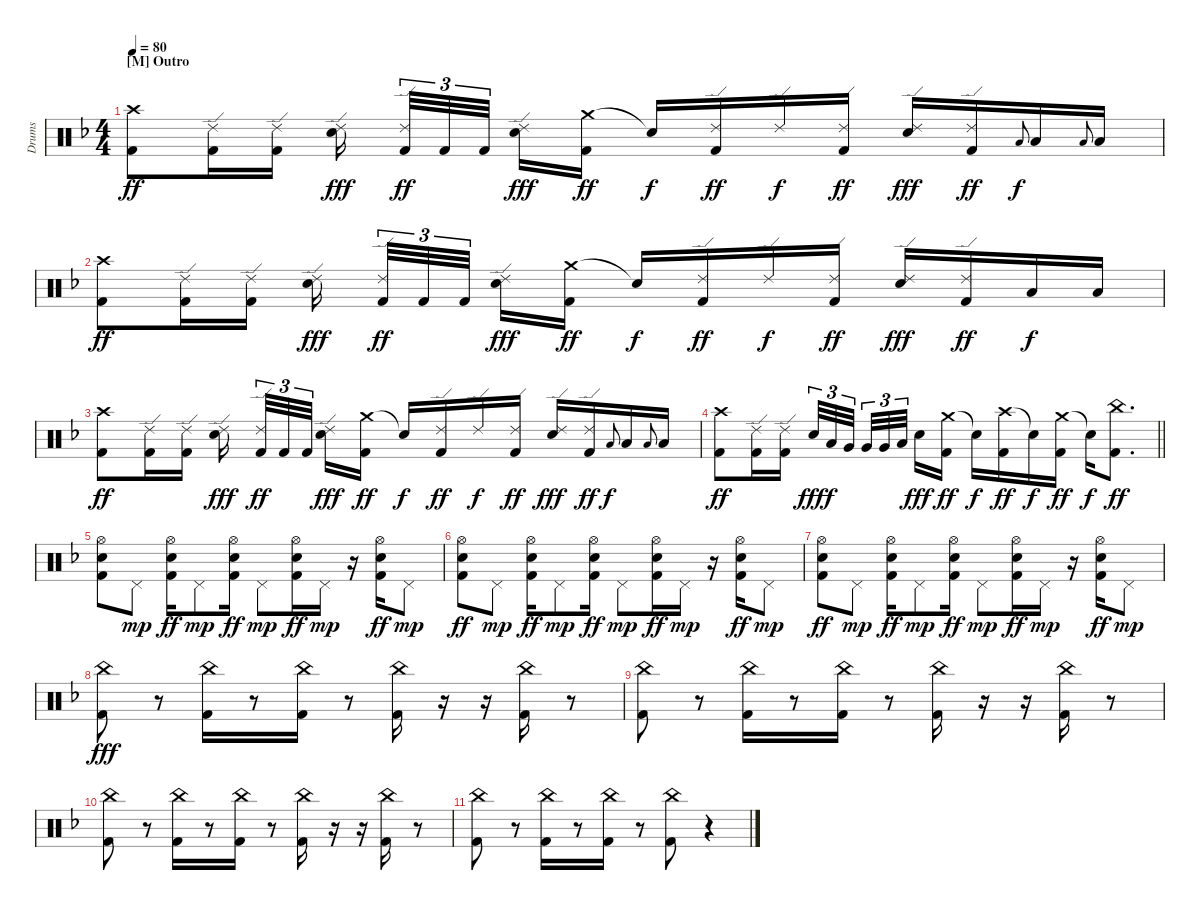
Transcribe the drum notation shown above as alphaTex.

\track ("Drums" "Drums") {instrument percussion}
\staff {score}
\articulation defaults
\ts (4 4)
\section ("" "[M] Outro")
\tempo 80
\clef neutral
\ks dminor
("Crash high (hit)" "Kick (hit) 2").8{dy ff} ("Ride (edge) 2" "Kick (hit) 2").16 ("Ride (edge) 2" "Kick (hit) 2").16 ("Ride (edge) 2" "Electric Snare (hit)").16{dy fff beam splitsecondary} ("Ride (edge) 2" "Kick (hit) 2").32{tu (3 2) dy ff} "Kick (hit) 2".32{tu (3 2)} "Kick (hit) 2".32{tu (3 2) beam splitsecondary} ("Ride (edge) 2" "Electric Snare (hit)").16{dy fff} ("Crash medium (hit)" "Kick (hit) 2").16{dy ff} "Snare (hit)"{t}.16{dy f} ("Ride (edge) 2" "Kick (hit) 2").16{dy ff} "Ride (edge) 2".16{dy f} ("Ride (edge) 2" "Kick (hit) 2").16{dy ff} ("Ride (edge) 2" "Electric Snare (hit)").16{dy fff} ("Ride (edge) 2" "Kick (hit) 2").16{dy ff} "Low Floor Tom (hit)".8{gr onbeat dy f} "Low Floor Tom (hit)".16 "Low Floor Tom (hit)".8{gr onbeat} "Low Floor Tom (hit)".16 |
("Crash high (hit)" "Kick (hit) 2").8{dy ff} ("Ride (edge) 2" "Kick (hit) 2").16 ("Ride (edge) 2" "Kick (hit) 2").16 ("Ride (edge) 2" "Electric Snare (hit)").16{dy fff beam splitsecondary} ("Ride (edge) 2" "Kick (hit) 2").32{tu (3 2) dy ff} "Kick (hit) 2".32{tu (3 2)} "Kick (hit) 2".32{tu (3 2) beam splitsecondary} ("Ride (edge) 2" "Electric Snare (hit)").16{dy fff} ("Crash medium (hit)" "Kick (hit) 2").16{dy ff} "Snare (hit)"{t}.16{dy f} ("Ride (edge) 2" "Kick (hit) 2").16{dy ff} "Ride (edge) 2".16{dy f} ("Ride (edge) 2" "Kick (hit) 2").16{dy ff} ("Ride (edge) 2" "Electric Snare (hit)").16{dy fff} ("Ride (edge) 2" "Kick (hit) 2").16{dy ff} "Low Tom (hit)".16{dy f} "Low Tom (hit)".16 |
("Crash high (hit)" "Kick (hit) 2").8{dy ff} ("Ride (edge) 2" "Kick (hit) 2").16 ("Ride (edge) 2" "Kick (hit) 2").16 ("Ride (edge) 2" "Electric Snare (hit)").16{dy fff beam splitsecondary} ("Ride (edge) 2" "Kick (hit) 2").32{tu (3 2) dy ff} "Kick (hit) 2".32{tu (3 2)} "Kick (hit) 2".32{tu (3 2) beam splitsecondary} ("Ride (edge) 2" "Electric Snare (hit)").16{dy fff} ("Crash medium (hit)" "Kick (hit) 2").16{dy ff} "Snare (hit)"{t}.16{dy f} ("Ride (edge) 2" "Kick (hit) 2").16{dy ff} "Ride (edge) 2".16{dy f} ("Ride (edge) 2" "Kick (hit) 2").16{dy ff} ("Ride (edge) 2" "Electric Snare (hit)").16{dy fff} ("Ride (edge) 2" "Kick (hit) 2").16{dy ff} "Low Floor Tom (hit)".8{gr onbeat dy f} "Low Floor Tom (hit)".16 "Low Floor Tom (hit)".8{gr onbeat} "Low Floor Tom (hit)".16 |
\barLineRight lightlight
("Crash high (hit)" "Kick (hit) 2").8{dy ff} ("Ride (edge) 2" "Kick (hit) 2").16 ("Ride (edge) 2" "Kick (hit) 2").16 "Electric Snare (hit)".32{tu (3 2) dy fff} "Low Tom (hit)".32{tu (3 2) dy f} "Very Low Tom (hit)".32{tu (3 2) beam splitsecondary} "Very Low Tom (hit)".32{tu (3 2)} "Very Low Tom (hit)".32{tu (3 2)} "Low Tom (hit)".32{tu (3 2) beam splitsecondary} "Electric Snare (hit)".16{dy fff} ("Crash medium (hit)" "Kick (hit) 2").16{dy ff} "Snare (hit)"{t}.16{dy f beam merge} ("Crash high (hit)" "Kick (hit) 2").16{dy ff} "Snare (hit)"{t}.16{dy f} ("Crash medium (hit)" "Kick (hit) 2").16{dy ff} "Snare (hit)"{t}.16{dy f} ("China (hit)" "Kick (hit) 2").8{d dy ff} |
("Hi-Hat (open)" "Electric Snare (hit)" "Kick (hit) 2").8 "Pedal Hi-Hat (hit)".8{dy mp} ("Hi-Hat (open)" "Electric Snare (hit)" "Kick (hit) 2").16{dy ff} "Pedal Hi-Hat (hit)".8{dy mp} ("Hi-Hat (open)" "Electric Snare (hit)" "Kick (hit) 2").16{dy ff} "Pedal Hi-Hat (hit)".8{dy mp} ("Hi-Hat (open)" "Electric Snare (hit)" "Kick (hit) 2").16{dy ff} "Pedal Hi-Hat (hit)".16{dy mp} r.16 ("Hi-Hat (open)" "Electric Snare (hit)" "Kick (hit) 2").16{dy ff} "Pedal Hi-Hat (hit)".8{dy mp} |
("Hi-Hat (open)" "Electric Snare (hit)" "Kick (hit) 2").8{dy ff} "Pedal Hi-Hat (hit)".8{dy mp} ("Hi-Hat (open)" "Electric Snare (hit)" "Kick (hit) 2").16{dy ff} "Pedal Hi-Hat (hit)".8{dy mp} ("Hi-Hat (open)" "Electric Snare (hit)" "Kick (hit) 2").16{dy ff} "Pedal Hi-Hat (hit)".8{dy mp} ("Hi-Hat (open)" "Electric Snare (hit)" "Kick (hit) 2").16{dy ff} "Pedal Hi-Hat (hit)".16{dy mp} r.16 ("Hi-Hat (open)" "Electric Snare (hit)" "Kick (hit) 2").16{dy ff} "Pedal Hi-Hat (hit)".8{dy mp} |
("Hi-Hat (open)" "Electric Snare (hit)" "Kick (hit) 2").8{dy ff} "Pedal Hi-Hat (hit)".8{dy mp} ("Hi-Hat (open)" "Electric Snare (hit)" "Kick (hit) 2").16{dy ff} "Pedal Hi-Hat (hit)".8{dy mp} ("Hi-Hat (open)" "Electric Snare (hit)" "Kick (hit) 2").16{dy ff} "Pedal Hi-Hat (hit)".8{dy mp} ("Hi-Hat (open)" "Electric Snare (hit)" "Kick (hit) 2").16{dy ff} "Pedal Hi-Hat (hit)".16{dy mp} r.16 ("Hi-Hat (open)" "Electric Snare (hit)" "Kick (hit) 2").16{dy ff} "Pedal Hi-Hat (hit)".8{dy mp} |
("China (hit)" "Kick (hit) 2").8{dy fff} r.8 ("China (hit)" "Kick (hit) 2").16 r.8 ("China (hit)" "Kick (hit) 2").16 r.8 ("China (hit)" "Kick (hit) 2").16 r.16 r.16 ("China (hit)" "Kick (hit) 2").16 r.8 |
("China (hit)" "Kick (hit) 2").8 r.8 ("China (hit)" "Kick (hit) 2").16 r.8 ("China (hit)" "Kick (hit) 2").16 r.8 ("China (hit)" "Kick (hit) 2").16 r.16 r.16 ("China (hit)" "Kick (hit) 2").16 r.8 |
("China (hit)" "Kick (hit) 2").8 r.8 ("China (hit)" "Kick (hit) 2").16 r.8 ("China (hit)" "Kick (hit) 2").16 r.8 ("China (hit)" "Kick (hit) 2").16 r.16 r.16 ("China (hit)" "Kick (hit) 2").16 r.8 |
("China (hit)" "Kick (hit) 2").8 r.8 ("China (hit)" "Kick (hit) 2").16 r.8 ("China (hit)" "Kick (hit) 2").16 r.8 ("China (hit)" "Kick (hit) 2").8 r.4
